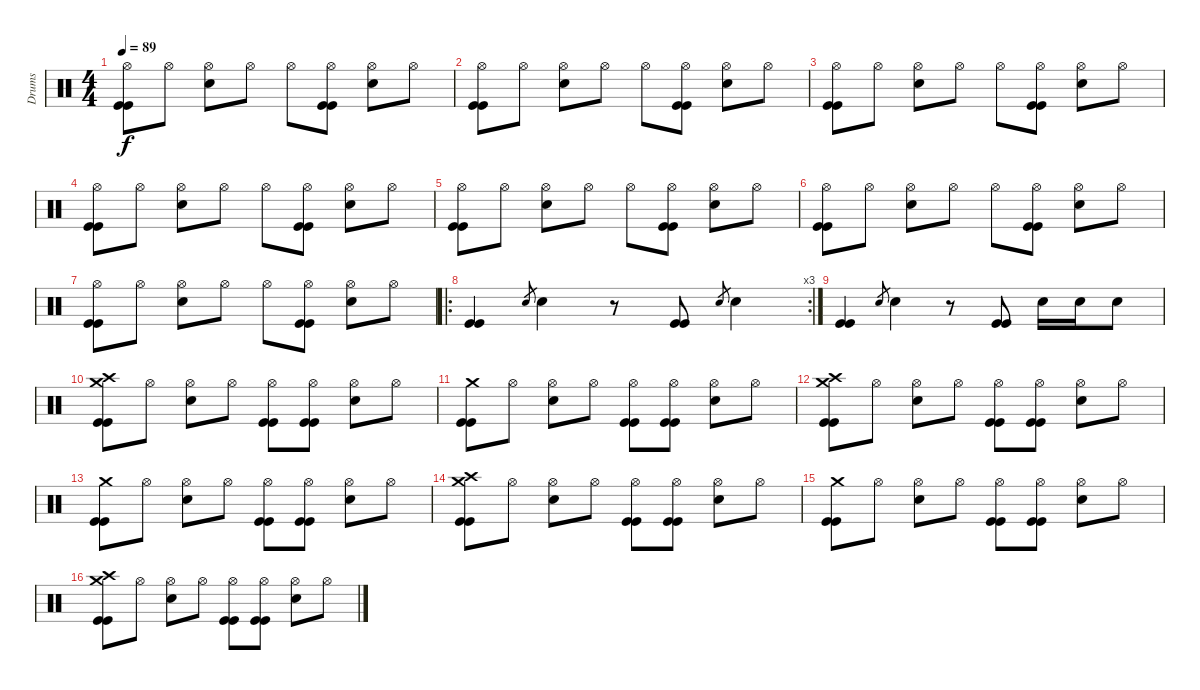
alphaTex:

\track ("Drums" "Drums") {instrument percussion}
\staff {score}
\articulation defaults
\ts (4 4)
\tempo 89
\clef neutral
\ks c
("Hi-Hat (open)" "Kick (hit)" "Kick (hit)").8{dy f} "Hi-Hat (open)".8 ("Hi-Hat (open)" "Electric Snare (hit)").8 "Hi-Hat (open)".8 "Hi-Hat (open)".8 ("Hi-Hat (open)" "Kick (hit)" "Kick (hit)").8 ("Hi-Hat (open)" "Electric Snare (hit)").8 "Hi-Hat (open)".8 |
("Hi-Hat (open)" "Kick (hit)" "Kick (hit)").8 "Hi-Hat (open)".8 ("Hi-Hat (open)" "Electric Snare (hit)").8 "Hi-Hat (open)".8 "Hi-Hat (open)".8 ("Hi-Hat (open)" "Kick (hit)" "Kick (hit)").8 ("Hi-Hat (open)" "Electric Snare (hit)").8 "Hi-Hat (open)".8 |
("Hi-Hat (open)" "Kick (hit)" "Kick (hit)").8 "Hi-Hat (open)".8 ("Hi-Hat (open)" "Electric Snare (hit)").8 "Hi-Hat (open)".8 "Hi-Hat (open)".8 ("Hi-Hat (open)" "Kick (hit)" "Kick (hit)").8 ("Hi-Hat (open)" "Electric Snare (hit)").8 "Hi-Hat (open)".8 |
("Hi-Hat (open)" "Kick (hit)" "Kick (hit)").8 "Hi-Hat (open)".8 ("Hi-Hat (open)" "Electric Snare (hit)").8 "Hi-Hat (open)".8 "Hi-Hat (open)".8 ("Hi-Hat (open)" "Kick (hit)" "Kick (hit)").8 ("Hi-Hat (open)" "Electric Snare (hit)").8 "Hi-Hat (open)".8 |
("Hi-Hat (open)" "Kick (hit)" "Kick (hit)").8 "Hi-Hat (open)".8 ("Hi-Hat (open)" "Electric Snare (hit)").8 "Hi-Hat (open)".8 "Hi-Hat (open)".8 ("Hi-Hat (open)" "Kick (hit)" "Kick (hit)").8 ("Hi-Hat (open)" "Electric Snare (hit)").8 "Hi-Hat (open)".8 |
("Hi-Hat (open)" "Kick (hit)" "Kick (hit)").8 "Hi-Hat (open)".8 ("Hi-Hat (open)" "Electric Snare (hit)").8 "Hi-Hat (open)".8 "Hi-Hat (open)".8 ("Hi-Hat (open)" "Kick (hit)" "Kick (hit)").8 ("Hi-Hat (open)" "Electric Snare (hit)").8 "Hi-Hat (open)".8 |
("Hi-Hat (open)" "Kick (hit)" "Kick (hit)").8 "Hi-Hat (open)".8 ("Hi-Hat (open)" "Electric Snare (hit)").8 "Hi-Hat (open)".8 "Hi-Hat (open)".8 ("Hi-Hat (open)" "Kick (hit)" "Kick (hit)").8 ("Hi-Hat (open)" "Electric Snare (hit)").8 "Hi-Hat (open)".8 |
\ro
\rc 3
("Kick (hit)" "Kick (hit)").4 "Electric Snare (hit)".8{gr} "Electric Snare (hit)".4 r.8 ("Kick (hit)" "Kick (hit)").8 "Electric Snare (hit)".8{gr} "Electric Snare (hit)".4 |
("Kick (hit)" "Kick (hit)").4 "Electric Snare (hit)".8{gr} "Electric Snare (hit)".4 r.8 ("Kick (hit)" "Kick (hit)").8 "Electric Snare (hit)".16 "Electric Snare (hit)".16 "Electric Snare (hit)".8 |
("Crash medium (hit)" "Crash high (hit)" "Kick (hit)" "Kick (hit)").8 "Hi-Hat (open)".8 ("Hi-Hat (open)" "Electric Snare (hit)").8 "Hi-Hat (open)".8 ("Hi-Hat (open)" "Kick (hit)" "Kick (hit)").8 ("Hi-Hat (open)" "Kick (hit)" "Kick (hit)").8 ("Hi-Hat (open)" "Electric Snare (hit)").8 "Hi-Hat (open)".8 |
("Crash medium (hit)" "Kick (hit)" "Kick (hit)").8 "Hi-Hat (open)".8 ("Hi-Hat (open)" "Electric Snare (hit)").8 "Hi-Hat (open)".8 ("Hi-Hat (open)" "Kick (hit)" "Kick (hit)").8 ("Hi-Hat (open)" "Kick (hit)" "Kick (hit)").8 ("Hi-Hat (open)" "Electric Snare (hit)").8 "Hi-Hat (open)".8 |
("Crash medium (hit)" "Crash high (hit)" "Kick (hit)" "Kick (hit)").8 "Hi-Hat (open)".8 ("Hi-Hat (open)" "Electric Snare (hit)").8 "Hi-Hat (open)".8 ("Hi-Hat (open)" "Kick (hit)" "Kick (hit)").8 ("Hi-Hat (open)" "Kick (hit)" "Kick (hit)").8 ("Hi-Hat (open)" "Electric Snare (hit)").8 "Hi-Hat (open)".8 |
("Crash medium (hit)" "Kick (hit)" "Kick (hit)").8 "Hi-Hat (open)".8 ("Hi-Hat (open)" "Electric Snare (hit)").8 "Hi-Hat (open)".8 ("Hi-Hat (open)" "Kick (hit)" "Kick (hit)").8 ("Hi-Hat (open)" "Kick (hit)" "Kick (hit)").8 ("Hi-Hat (open)" "Electric Snare (hit)").8 "Hi-Hat (open)".8 |
("Crash medium (hit)" "Crash high (hit)" "Kick (hit)" "Kick (hit)").8 "Hi-Hat (open)".8 ("Hi-Hat (open)" "Electric Snare (hit)").8 "Hi-Hat (open)".8 ("Hi-Hat (open)" "Kick (hit)" "Kick (hit)").8 ("Hi-Hat (open)" "Kick (hit)" "Kick (hit)").8 ("Hi-Hat (open)" "Electric Snare (hit)").8 "Hi-Hat (open)".8 |
("Crash medium (hit)" "Kick (hit)" "Kick (hit)").8 "Hi-Hat (open)".8 ("Hi-Hat (open)" "Electric Snare (hit)").8 "Hi-Hat (open)".8 ("Hi-Hat (open)" "Kick (hit)" "Kick (hit)").8 ("Hi-Hat (open)" "Kick (hit)" "Kick (hit)").8 ("Hi-Hat (open)" "Electric Snare (hit)").8 "Hi-Hat (open)".8 |
("Crash medium (hit)" "Crash high (hit)" "Kick (hit)" "Kick (hit)").8 "Hi-Hat (open)".8 ("Hi-Hat (open)" "Electric Snare (hit)").8 "Hi-Hat (open)".8 ("Hi-Hat (open)" "Kick (hit)" "Kick (hit)").8 ("Hi-Hat (open)" "Kick (hit)" "Kick (hit)").8 ("Hi-Hat (open)" "Electric Snare (hit)").8 "Hi-Hat (open)".8
